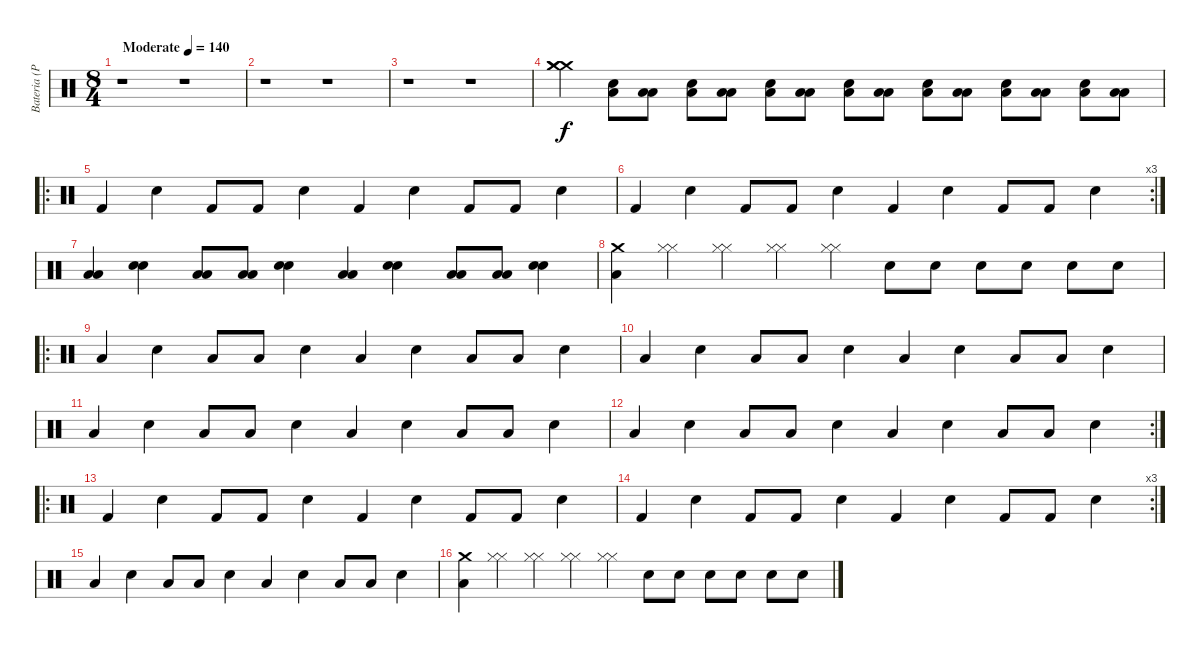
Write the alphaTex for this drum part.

\track ("Bateria (Pelado)" "Bateria (P") {instrument percussion}
\staff {score}
\articulation defaults
\ts (8 4)
\tempo (140 "Moderate")
\clef neutral
\ks c
r.1{dy f} r.1 |
r.1 r.1 |
r.1 r.1 |
("Crash medium (hit)" "Crash medium (hit)" "Crash medium (hit)").4 ("Low Tom (hit)" "Snare (hit) 2").8 ("Low Floor Tom (hit)" "Low Floor Tom (hit)").8 ("Low Tom (hit)" "Snare (hit) 2").8 ("Low Floor Tom (hit)" "Low Floor Tom (hit)").8 ("Low Tom (hit)" "Snare (hit) 2").8 ("Low Floor Tom (hit)" "Low Floor Tom (hit)").8 ("Low Tom (hit)" "Snare (hit) 2").8 ("Low Floor Tom (hit)" "Low Floor Tom (hit)").8 ("Low Tom (hit)" "Snare (hit) 2").8 ("Low Floor Tom (hit)" "Low Floor Tom (hit)").8 ("Low Tom (hit)" "Snare (hit) 2").8 ("Low Floor Tom (hit)" "Low Floor Tom (hit)").8 ("Low Tom (hit)" "Snare (hit) 2").8 ("Low Floor Tom (hit)" "Low Floor Tom (hit)").8 |
\ro "Kick (hit) 2".4 "Snare (hit) 2".4 "Kick (hit) 2".8 "Kick (hit) 2".8 "Snare (hit) 2".4 "Kick (hit) 2".4 "Snare (hit) 2".4 "Kick (hit) 2".8 "Kick (hit) 2".8 "Snare (hit) 2".4
|
\rc 3 "Kick (hit) 2".4 "Snare (hit) 2".4 "Kick (hit) 2".8 "Kick (hit) 2".8 "Snare (hit) 2".4 "Kick (hit) 2".4 "Snare (hit) 2".4 "Kick (hit) 2".8 "Kick (hit) 2".8 "Snare (hit) 2".4
|
("Low Floor Tom (hit)" "Low Floor Tom (hit)").4 ("Snare (hit) 2" "Snare (hit) 2").4 ("Low Floor Tom (hit)" "Low Floor Tom (hit)").8 ("Low Floor Tom (hit)" "Low Floor Tom (hit)").8 ("Snare (hit) 2" "Snare (hit) 2").4 ("Low Floor Tom (hit)" "Low Floor Tom (hit)").4 ("Snare (hit) 2" "Snare (hit) 2").4 ("Low Floor Tom (hit)" "Low Floor Tom (hit)").8 ("Low Floor Tom (hit)" "Low Floor Tom (hit)").8 ("Snare (hit) 2" "Snare (hit) 2").4 |
("Low Floor Tom (hit)" "Crash medium (hit)").4 ("Hi-Hat (closed)" "Hi-Hat (closed)").4 ("Hi-Hat (closed)" "Hi-Hat (closed)").4 ("Hi-Hat (closed)" "Hi-Hat (closed)").4 ("Hi-Hat (closed)" "Hi-Hat (closed)").4 "Snare (hit) 2".8 "Snare (hit) 2".8 "Snare (hit) 2".8 "Snare (hit) 2".8 "Snare (hit) 2".8 "Snare (hit) 2".8 |
\ro "Low Floor Tom (hit)".4 "Snare (hit) 2".4 "Low Floor Tom (hit)".8 "Low Floor Tom (hit)".8 "Snare (hit) 2".4 "Low Floor Tom (hit)".4 "Snare (hit) 2".4 "Low Floor Tom (hit)".8 "Low Floor Tom (hit)".8 "Snare (hit) 2".4
|
"Low Floor Tom (hit)".4 "Snare (hit) 2".4 "Low Floor Tom (hit)".8 "Low Floor Tom (hit)".8 "Snare (hit) 2".4 "Low Floor Tom (hit)".4 "Snare (hit) 2".4 "Low Floor Tom (hit)".8 "Low Floor Tom (hit)".8 "Snare (hit) 2".4 |
"Low Floor Tom (hit)".4 "Snare (hit) 2".4 "Low Floor Tom (hit)".8 "Low Floor Tom (hit)".8 "Snare (hit) 2".4 "Low Floor Tom (hit)".4 "Snare (hit) 2".4 "Low Floor Tom (hit)".8 "Low Floor Tom (hit)".8 "Snare (hit) 2".4 |
\rc 2 "Low Floor Tom (hit)".4 "Snare (hit) 2".4 "Low Floor Tom (hit)".8 "Low Floor Tom (hit)".8 "Snare (hit) 2".4 "Low Floor Tom (hit)".4 "Snare (hit) 2".4 "Low Floor Tom (hit)".8 "Low Floor Tom (hit)".8 "Snare (hit) 2".4
|
\ro "Kick (hit) 2".4 "Snare (hit) 2".4 "Kick (hit) 2".8 "Kick (hit) 2".8 "Snare (hit) 2".4 "Kick (hit) 2".4 "Snare (hit) 2".4 "Kick (hit) 2".8 "Kick (hit) 2".8 "Snare (hit) 2".4
|
\rc 3 "Kick (hit) 2".4 "Snare (hit) 2".4 "Kick (hit) 2".8 "Kick (hit) 2".8 "Snare (hit) 2".4 "Kick (hit) 2".4 "Snare (hit) 2".4 "Kick (hit) 2".8 "Kick (hit) 2".8 "Snare (hit) 2".4
|
"Low Floor Tom (hit)".4 "Snare (hit) 2".4 "Low Floor Tom (hit)".8 "Low Floor Tom (hit)".8 "Snare (hit) 2".4 "Low Floor Tom (hit)".4 "Snare (hit) 2".4 "Low Floor Tom (hit)".8 "Low Floor Tom (hit)".8 "Snare (hit) 2".4 |
("Low Floor Tom (hit)" "Crash medium (hit)").4 ("Hi-Hat (closed)" "Hi-Hat (closed)").4 ("Hi-Hat (closed)" "Hi-Hat (closed)").4 ("Hi-Hat (closed)" "Hi-Hat (closed)").4 ("Hi-Hat (closed)" "Hi-Hat (closed)").4 "Snare (hit) 2".8 "Snare (hit) 2".8 "Snare (hit) 2".8 "Snare (hit) 2".8 "Snare (hit) 2".8 "Snare (hit) 2".8
